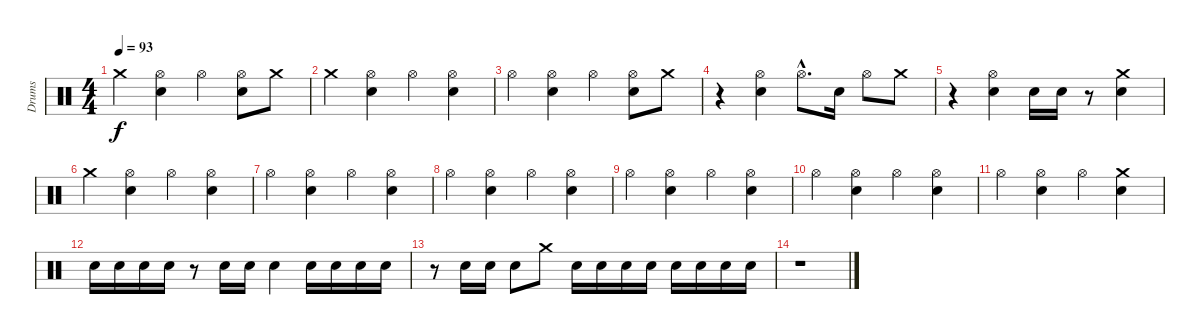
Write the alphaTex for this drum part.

\track ("Drums" "Drums") {instrument percussion}
\staff {score}
\articulation defaults
\ts (4 4)
\tempo 93
\clef neutral
\ks c "Crash medium (hit)".4{dy f}
("Hi-Hat (open)" "Electric Snare (hit)").4 "Hi-Hat (open)".4 ("Hi-Hat (open)" "Electric Snare (hit)").8 "Crash medium (hit)".8 |
"Crash medium (hit)".4 ("Hi-Hat (open)" "Electric Snare (hit)").4 "Hi-Hat (open)".4 ("Hi-Hat (open)" "Electric Snare (hit)").4 |
"Hi-Hat (open)".4 ("Hi-Hat (open)" "Electric Snare (hit)").4 "Hi-Hat (open)".4 ("Electric Snare (hit)" "Hi-Hat (open)").8 "Crash medium (hit)".8 |
r.4 ("Hi-Hat (open)" "Electric Snare (hit)").4 "Hi-Hat (open)"{hac}.8{d} "Electric Snare (hit)".16 "Hi-Hat (open)".8 "Crash medium (hit)".8 |
r.4 ("Hi-Hat (open)" "Electric Snare (hit)").4 "Electric Snare (hit)".16 "Electric Snare (hit)".16 r.8 ("Electric Snare (hit)" "Crash medium (hit)").4 |
"Crash medium (hit)".4 ("Hi-Hat (open)" "Electric Snare (hit)").4 "Hi-Hat (open)".4 ("Hi-Hat (open)" "Electric Snare (hit)").4 |
"Hi-Hat (open)".4 ("Hi-Hat (open)" "Electric Snare (hit)").4 "Hi-Hat (open)".4 ("Hi-Hat (open)" "Electric Snare (hit)").4 |
"Hi-Hat (open)".4 ("Hi-Hat (open)" "Electric Snare (hit)").4 "Hi-Hat (open)".4 ("Hi-Hat (open)" "Electric Snare (hit)").4 |
"Hi-Hat (open)".4 ("Hi-Hat (open)" "Electric Snare (hit)").4 "Hi-Hat (open)".4 ("Hi-Hat (open)" "Electric Snare (hit)").4 |
"Hi-Hat (open)".4 ("Hi-Hat (open)" "Electric Snare (hit)").4 "Hi-Hat (open)".4 ("Hi-Hat (open)" "Electric Snare (hit)").4 |
"Hi-Hat (open)".4 ("Hi-Hat (open)" "Electric Snare (hit)").4 "Hi-Hat (open)".4 ("Crash medium (hit)" "Electric Snare (hit)").4 |
"Electric Snare (hit)".16 "Electric Snare (hit)".16 "Electric Snare (hit)".16 "Electric Snare (hit)".16 r.8 "Electric Snare (hit)".16 "Electric Snare (hit)".16 "Electric Snare (hit)".4 "Electric Snare (hit)".16 "Electric Snare (hit)".16 "Electric Snare (hit)".16 "Electric Snare (hit)".16 |
r.8 "Electric Snare (hit)".16 "Electric Snare (hit)".16 "Electric Snare (hit)".8 "Crash medium (hit)".8 "Electric Snare (hit)".16 "Electric Snare (hit)".16 "Electric Snare (hit)".16 "Electric Snare (hit)".16 "Electric Snare (hit)".16 "Electric Snare (hit)".16 "Electric Snare (hit)".16 "Electric Snare (hit)".16 |
r.1
